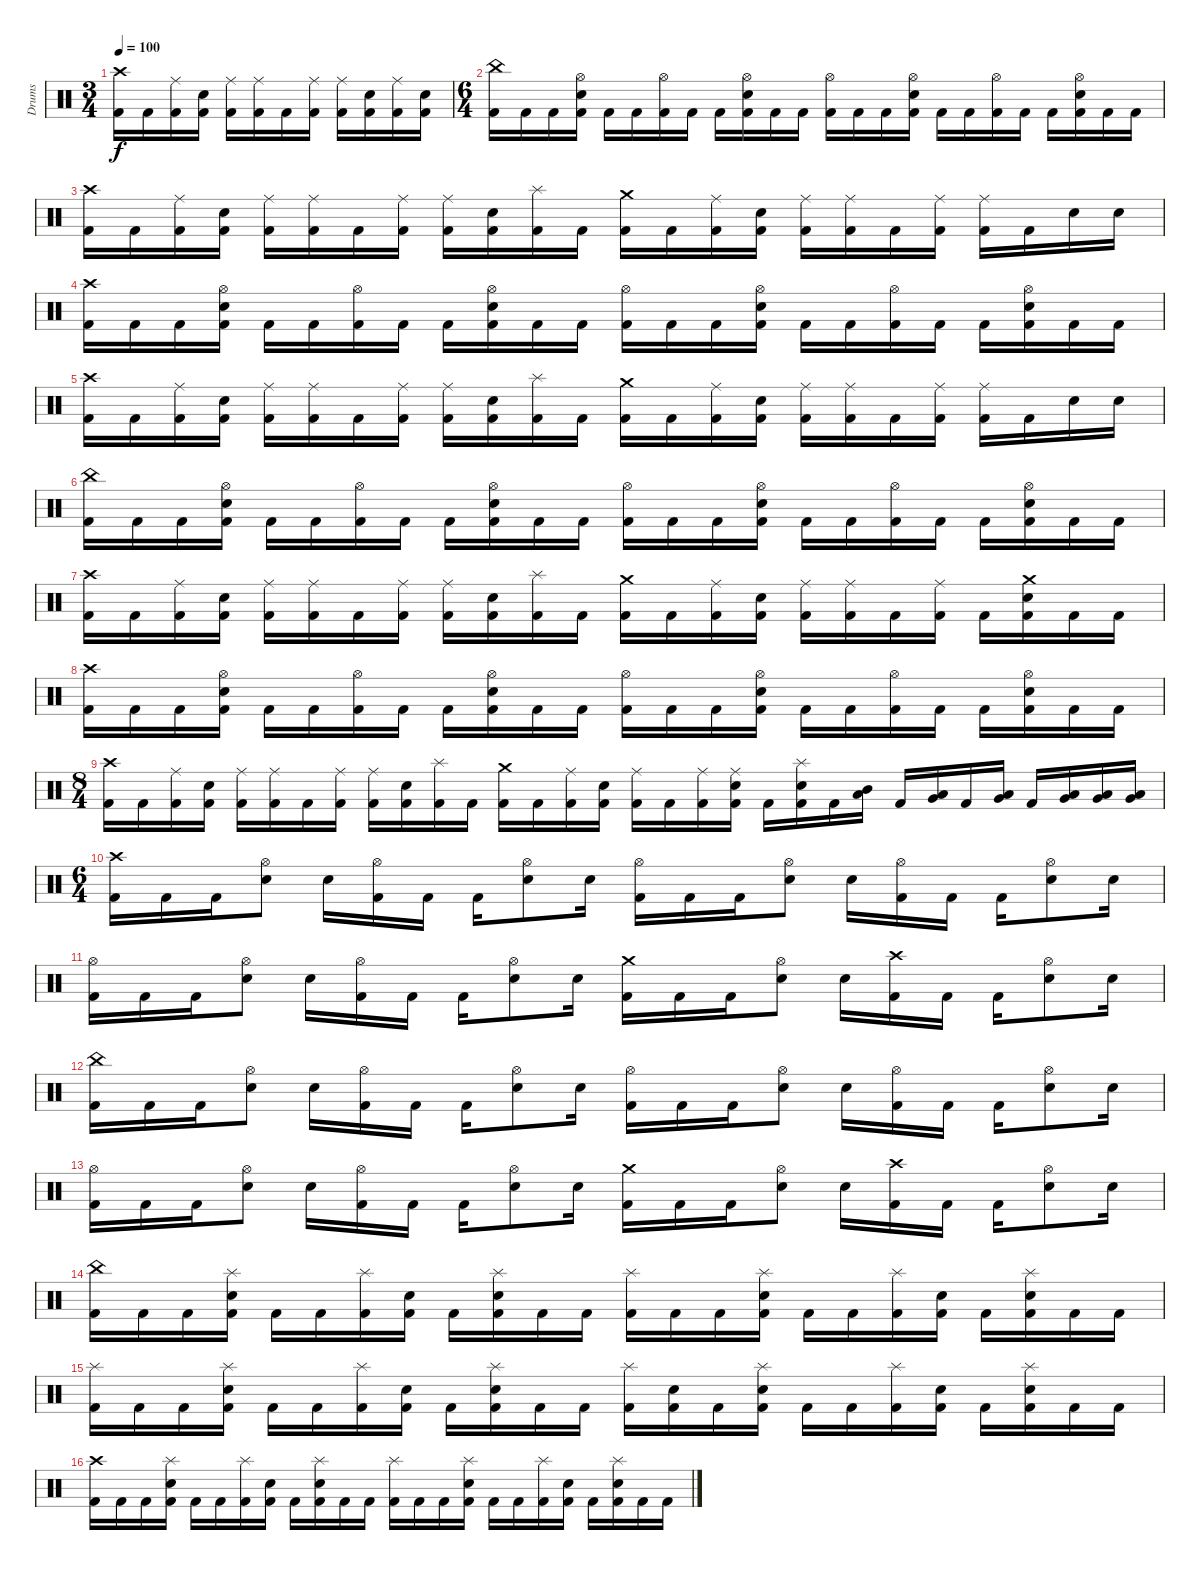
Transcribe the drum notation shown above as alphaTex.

\track ("Drums" "Drums") {instrument percussion}
\staff {score}
\articulation defaults
\ts (3 4)
\tempo 100
\clef neutral
\ks c
("Crash high (hit)" "Kick (hit) 2").16{dy f} "Kick (hit) 2".16 ("Ride (middle)" "Kick (hit) 2").16 ("Electric Snare (hit)" "Kick (hit) 2").16 ("Ride (middle)" "Kick (hit) 2").16 ("Ride (middle)" "Kick (hit) 2").16 "Kick (hit) 2".16 ("Ride (middle)" "Kick (hit) 2").16 ("Ride (middle)" "Kick (hit) 2").16 ("Electric Snare (hit)" "Kick (hit) 2").16 ("Ride (middle)" "Kick (hit) 2").16 ("Electric Snare (hit)" "Kick (hit) 2").16 |
\ts (6 4)
("China (hit)" "Kick (hit) 2").16 "Kick (hit) 2".16 "Kick (hit) 2".16 ("Hi-Hat (open)" "Electric Snare (hit)" "Kick (hit) 2").16 "Kick (hit) 2".16 "Kick (hit) 2".16 ("Hi-Hat (open)" "Kick (hit) 2").16 "Kick (hit) 2".16 "Kick (hit) 2".16 ("Hi-Hat (open)" "Electric Snare (hit)" "Kick (hit) 2").16 "Kick (hit) 2".16 "Kick (hit) 2".16 ("Hi-Hat (open)" "Kick (hit) 2").16 "Kick (hit) 2".16 "Kick (hit) 2".16 ("Hi-Hat (open)" "Electric Snare (hit)" "Kick (hit) 2").16 "Kick (hit) 2".16 "Kick (hit) 2".16 ("Hi-Hat (open)" "Kick (hit) 2").16 "Kick (hit) 2".16 "Kick (hit) 2".16 ("Hi-Hat (open)" "Electric Snare (hit)" "Kick (hit) 2").16 "Kick (hit) 2".16 "Kick (hit) 2".16 |
("Crash high (hit)" "Kick (hit) 2").16 "Kick (hit) 2".16 ("Ride (middle)" "Kick (hit) 2").16 ("Electric Snare (hit)" "Kick (hit) 2").16 ("Ride (middle)" "Kick (hit) 2").16 ("Ride (middle)" "Kick (hit) 2").16 "Kick (hit) 2".16 ("Ride (middle)" "Kick (hit) 2").16 ("Ride (middle)" "Kick (hit) 2").16 ("Electric Snare (hit)" "Kick (hit) 2").16 ("Splash (hit)" "Kick (hit) 2").16 "Kick (hit) 2".16 ("Crash medium (hit)" "Kick (hit) 2").16 "Kick (hit) 2".16 ("Ride (middle)" "Kick (hit) 2").16 ("Electric Snare (hit)" "Kick (hit) 2").16 ("Ride (middle)" "Kick (hit) 2").16 ("Ride (middle)" "Kick (hit) 2").16 "Kick (hit) 2".16 ("Ride (middle)" "Kick (hit) 2").16 ("Ride (middle)" "Kick (hit) 2").16 "Kick (hit) 2".16 "Electric Snare (hit)".16 "Electric Snare (hit)".16 |
("Crash high (hit)" "Kick (hit) 2").16 "Kick (hit) 2".16 "Kick (hit) 2".16 ("Hi-Hat (open)" "Electric Snare (hit)" "Kick (hit) 2").16 "Kick (hit) 2".16 "Kick (hit) 2".16 ("Hi-Hat (open)" "Kick (hit) 2").16 "Kick (hit) 2".16 "Kick (hit) 2".16 ("Hi-Hat (open)" "Electric Snare (hit)" "Kick (hit) 2").16 "Kick (hit) 2".16 "Kick (hit) 2".16 ("Hi-Hat (open)" "Kick (hit) 2").16 "Kick (hit) 2".16 "Kick (hit) 2".16 ("Hi-Hat (open)" "Electric Snare (hit)" "Kick (hit) 2").16 "Kick (hit) 2".16 "Kick (hit) 2".16 ("Hi-Hat (open)" "Kick (hit) 2").16 "Kick (hit) 2".16 "Kick (hit) 2".16 ("Hi-Hat (open)" "Electric Snare (hit)" "Kick (hit) 2").16 "Kick (hit) 2".16 "Kick (hit) 2".16 |
("Crash high (hit)" "Kick (hit) 2").16 "Kick (hit) 2".16 ("Ride (middle)" "Kick (hit) 2").16 ("Electric Snare (hit)" "Kick (hit) 2").16 ("Ride (middle)" "Kick (hit) 2").16 ("Ride (middle)" "Kick (hit) 2").16 "Kick (hit) 2".16 ("Ride (middle)" "Kick (hit) 2").16 ("Ride (middle)" "Kick (hit) 2").16 ("Electric Snare (hit)" "Kick (hit) 2").16 ("Splash (hit)" "Kick (hit) 2").16 "Kick (hit) 2".16 ("Crash medium (hit)" "Kick (hit) 2").16 "Kick (hit) 2".16 ("Ride (middle)" "Kick (hit) 2").16 ("Electric Snare (hit)" "Kick (hit) 2").16 ("Ride (middle)" "Kick (hit) 2").16 ("Ride (middle)" "Kick (hit) 2").16 "Kick (hit) 2".16 ("Ride (middle)" "Kick (hit) 2").16 ("Ride (middle)" "Kick (hit) 2").16 "Kick (hit) 2".16 "Electric Snare (hit)".16 "Electric Snare (hit)".16 |
("China (hit)" "Kick (hit) 2").16 "Kick (hit) 2".16 "Kick (hit) 2".16 ("Hi-Hat (open)" "Electric Snare (hit)" "Kick (hit) 2").16 "Kick (hit) 2".16 "Kick (hit) 2".16 ("Hi-Hat (open)" "Kick (hit) 2").16 "Kick (hit) 2".16 "Kick (hit) 2".16 ("Hi-Hat (open)" "Electric Snare (hit)" "Kick (hit) 2").16 "Kick (hit) 2".16 "Kick (hit) 2".16 ("Hi-Hat (open)" "Kick (hit) 2").16 "Kick (hit) 2".16 "Kick (hit) 2".16 ("Hi-Hat (open)" "Electric Snare (hit)" "Kick (hit) 2").16 "Kick (hit) 2".16 "Kick (hit) 2".16 ("Hi-Hat (open)" "Kick (hit) 2").16 "Kick (hit) 2".16 "Kick (hit) 2".16 ("Hi-Hat (open)" "Electric Snare (hit)" "Kick (hit) 2").16 "Kick (hit) 2".16 "Kick (hit) 2".16 |
("Crash high (hit)" "Kick (hit) 2").16 "Kick (hit) 2".16 ("Ride (middle)" "Kick (hit) 2").16 ("Electric Snare (hit)" "Kick (hit) 2").16 ("Ride (middle)" "Kick (hit) 2").16 ("Ride (middle)" "Kick (hit) 2").16 "Kick (hit) 2".16 ("Ride (middle)" "Kick (hit) 2").16 ("Ride (middle)" "Kick (hit) 2").16 ("Electric Snare (hit)" "Kick (hit) 2").16 ("Splash (hit)" "Kick (hit) 2").16 "Kick (hit) 2".16 ("Crash medium (hit)" "Kick (hit) 2").16 "Kick (hit) 2".16 ("Ride (middle)" "Kick (hit) 2").16 ("Electric Snare (hit)" "Kick (hit) 2").16 ("Ride (middle)" "Kick (hit) 2").16 ("Ride (middle)" "Kick (hit) 2").16 "Kick (hit) 2".16 ("Ride (middle)" "Kick (hit) 2").16 "Kick (hit) 2".16 ("Crash medium (hit)" "Electric Snare (hit)" "Kick (hit) 2").16 "Kick (hit) 2".16 "Kick (hit) 2".16 |
("Crash high (hit)" "Kick (hit) 2").16 "Kick (hit) 2".16 "Kick (hit) 2".16 ("Hi-Hat (open)" "Electric Snare (hit)" "Kick (hit) 2").16 "Kick (hit) 2".16 "Kick (hit) 2".16 ("Hi-Hat (open)" "Kick (hit) 2").16 "Kick (hit) 2".16 "Kick (hit) 2".16 ("Hi-Hat (open)" "Electric Snare (hit)" "Kick (hit) 2").16 "Kick (hit) 2".16 "Kick (hit) 2".16 ("Hi-Hat (open)" "Kick (hit) 2").16 "Kick (hit) 2".16 "Kick (hit) 2".16 ("Hi-Hat (open)" "Electric Snare (hit)" "Kick (hit) 2").16 "Kick (hit) 2".16 "Kick (hit) 2".16 ("Hi-Hat (open)" "Kick (hit) 2").16 "Kick (hit) 2".16 "Kick (hit) 2".16 ("Hi-Hat (open)" "Electric Snare (hit)" "Kick (hit) 2").16 "Kick (hit) 2".16 "Kick (hit) 2".16 |
\ts (8 4)
("Crash high (hit)" "Kick (hit) 2").16 "Kick (hit) 2".16 ("Ride (middle)" "Kick (hit) 2").16 ("Electric Snare (hit)" "Kick (hit) 2").16 ("Ride (middle)" "Kick (hit) 2").16 ("Ride (middle)" "Kick (hit) 2").16 "Kick (hit) 2".16 ("Ride (middle)" "Kick (hit) 2").16 ("Ride (middle)" "Kick (hit) 2").16 ("Electric Snare (hit)" "Kick (hit) 2").16 ("Splash (hit)" "Kick (hit) 2").16 "Kick (hit) 2".16 ("Crash medium (hit)" "Kick (hit) 2").16 "Kick (hit) 2".16 ("Ride (middle)" "Kick (hit) 2").16 ("Electric Snare (hit)" "Kick (hit) 2").16 ("Ride (middle)" "Kick (hit) 2").16 "Kick (hit) 2".16 ("Ride (middle)" "Kick (hit) 2").16 ("Ride (middle)" "Electric Snare (hit)" "Kick (hit) 2").16 "Kick (hit) 2".16 ("Splash (hit)" "Electric Snare (hit)" "Kick (hit) 2").16 "Kick (hit) 2".16 ("Mid Tom (hit)" "Low Tom (hit)").16 "Kick (hit) 2".16 ("Low Tom (hit)" "Very Low Tom (hit)").16 "Kick (hit) 2".16 ("Low Floor Tom (hit)" "Very Low Tom (hit)").16 "Kick (hit) 2".16 ("Low Floor Tom (hit)" "Very Low Tom (hit)").16 ("Low Floor Tom (hit)" "Very Low Tom (hit)").16 ("Low Floor Tom (hit)" "Very Low Tom (hit)").16 |
\ts (6 4)
("Crash high (hit)" "Kick (hit) 2").16 "Kick (hit) 2".16 "Kick (hit) 2".16 ("Hi-Hat (open)" "Electric Snare (hit)").8 "Electric Snare (hit)".16 ("Hi-Hat (open)" "Kick (hit) 2").16 "Kick (hit) 2".16 "Kick (hit) 2".16 ("Hi-Hat (open)" "Electric Snare (hit)").8 "Electric Snare (hit)".16 ("Hi-Hat (open)" "Kick (hit) 2").16 "Kick (hit) 2".16 "Kick (hit) 2".16 ("Hi-Hat (open)" "Electric Snare (hit)").8 "Electric Snare (hit)".16 ("Hi-Hat (open)" "Kick (hit) 2").16 "Kick (hit) 2".16 "Kick (hit) 2".16 ("Hi-Hat (open)" "Electric Snare (hit)").8 "Electric Snare (hit)".16 |
("Hi-Hat (open)" "Kick (hit) 2").16 "Kick (hit) 2".16 "Kick (hit) 2".16 ("Hi-Hat (open)" "Electric Snare (hit)").8 "Electric Snare (hit)".16 ("Hi-Hat (open)" "Kick (hit) 2").16 "Kick (hit) 2".16 "Kick (hit) 2".16 ("Hi-Hat (open)" "Electric Snare (hit)").8 "Electric Snare (hit)".16 ("Crash medium (hit)" "Kick (hit) 2").16 "Kick (hit) 2".16 "Kick (hit) 2".16 ("Hi-Hat (open)" "Electric Snare (hit)").8 "Electric Snare (hit)".16 ("Crash high (hit)" "Kick (hit) 2").16 "Kick (hit) 2".16 "Kick (hit) 2".16 ("Hi-Hat (open)" "Electric Snare (hit)").8 "Electric Snare (hit)".16 |
("China (hit)" "Kick (hit) 2").16 "Kick (hit) 2".16 "Kick (hit) 2".16 ("Hi-Hat (open)" "Electric Snare (hit)").8 "Electric Snare (hit)".16 ("Hi-Hat (open)" "Kick (hit) 2").16 "Kick (hit) 2".16 "Kick (hit) 2".16 ("Hi-Hat (open)" "Electric Snare (hit)").8 "Electric Snare (hit)".16 ("Hi-Hat (open)" "Kick (hit) 2").16 "Kick (hit) 2".16 "Kick (hit) 2".16 ("Hi-Hat (open)" "Electric Snare (hit)").8 "Electric Snare (hit)".16 ("Hi-Hat (open)" "Kick (hit) 2").16 "Kick (hit) 2".16 "Kick (hit) 2".16 ("Hi-Hat (open)" "Electric Snare (hit)").8 "Electric Snare (hit)".16 |
("Hi-Hat (open)" "Kick (hit) 2").16 "Kick (hit) 2".16 "Kick (hit) 2".16 ("Hi-Hat (open)" "Electric Snare (hit)").8 "Electric Snare (hit)".16 ("Hi-Hat (open)" "Kick (hit) 2").16 "Kick (hit) 2".16 "Kick (hit) 2".16 ("Hi-Hat (open)" "Electric Snare (hit)").8 "Electric Snare (hit)".16 ("Crash medium (hit)" "Kick (hit) 2").16 "Kick (hit) 2".16 "Kick (hit) 2".16 ("Hi-Hat (open)" "Electric Snare (hit)").8 "Electric Snare (hit)".16 ("Crash high (hit)" "Kick (hit) 2").16 "Kick (hit) 2".16 "Kick (hit) 2".16 ("Hi-Hat (open)" "Electric Snare (hit)").8 "Electric Snare (hit)".16 |
("China (hit)" "Kick (hit) 2").16 "Kick (hit) 2".16 "Kick (hit) 2".16 ("Splash (hit)" "Electric Snare (hit)" "Kick (hit) 2").16 "Kick (hit) 2".16 "Kick (hit) 2".16 ("Splash (hit)" "Kick (hit) 2").16 ("Electric Snare (hit)" "Kick (hit) 2").16 "Kick (hit) 2".16 ("Splash (hit)" "Electric Snare (hit)" "Kick (hit) 2").16 "Kick (hit) 2".16 "Kick (hit) 2".16 ("Splash (hit)" "Kick (hit) 2").16 "Kick (hit) 2".16 "Kick (hit) 2".16 ("Splash (hit)" "Electric Snare (hit)" "Kick (hit) 2").16 "Kick (hit) 2".16 "Kick (hit) 2".16 ("Splash (hit)" "Kick (hit) 2").16 ("Electric Snare (hit)" "Kick (hit) 2").16 "Kick (hit) 2".16 ("Splash (hit)" "Electric Snare (hit)" "Kick (hit) 2").16 "Kick (hit) 2".16 "Kick (hit) 2".16 |
("Splash (hit)" "Kick (hit) 2").16 "Kick (hit) 2".16 "Kick (hit) 2".16 ("Splash (hit)" "Electric Snare (hit)" "Kick (hit) 2").16 "Kick (hit) 2".16 "Kick (hit) 2".16 ("Splash (hit)" "Kick (hit) 2").16 ("Electric Snare (hit)" "Kick (hit) 2").16 "Kick (hit) 2".16 ("Splash (hit)" "Electric Snare (hit)" "Kick (hit) 2").16 "Kick (hit) 2".16 "Kick (hit) 2".16 ("Splash (hit)" "Kick (hit) 2").16 ("Electric Snare (hit)" "Kick (hit) 2").16 "Kick (hit) 2".16 ("Splash (hit)" "Electric Snare (hit)" "Kick (hit) 2").16 "Kick (hit) 2".16 "Kick (hit) 2".16 ("Splash (hit)" "Kick (hit) 2").16 ("Electric Snare (hit)" "Kick (hit) 2").16 "Kick (hit) 2".16 ("Splash (hit)" "Electric Snare (hit)" "Kick (hit) 2").16 "Kick (hit) 2".16 "Kick (hit) 2".16 |
("Crash high (hit)" "Kick (hit) 2").16 "Kick (hit) 2".16 "Kick (hit) 2".16 ("Splash (hit)" "Electric Snare (hit)" "Kick (hit) 2").16 "Kick (hit) 2".16 "Kick (hit) 2".16 ("Splash (hit)" "Kick (hit) 2").16 ("Electric Snare (hit)" "Kick (hit) 2").16 "Kick (hit) 2".16 ("Splash (hit)" "Electric Snare (hit)" "Kick (hit) 2").16 "Kick (hit) 2".16 "Kick (hit) 2".16 ("Splash (hit)" "Kick (hit) 2").16 "Kick (hit) 2".16 "Kick (hit) 2".16 ("Splash (hit)" "Electric Snare (hit)" "Kick (hit) 2").16 "Kick (hit) 2".16 "Kick (hit) 2".16 ("Splash (hit)" "Kick (hit) 2").16 ("Electric Snare (hit)" "Kick (hit) 2").16 "Kick (hit) 2".16 ("Splash (hit)" "Electric Snare (hit)" "Kick (hit) 2").16 "Kick (hit) 2".16 "Kick (hit) 2".16
